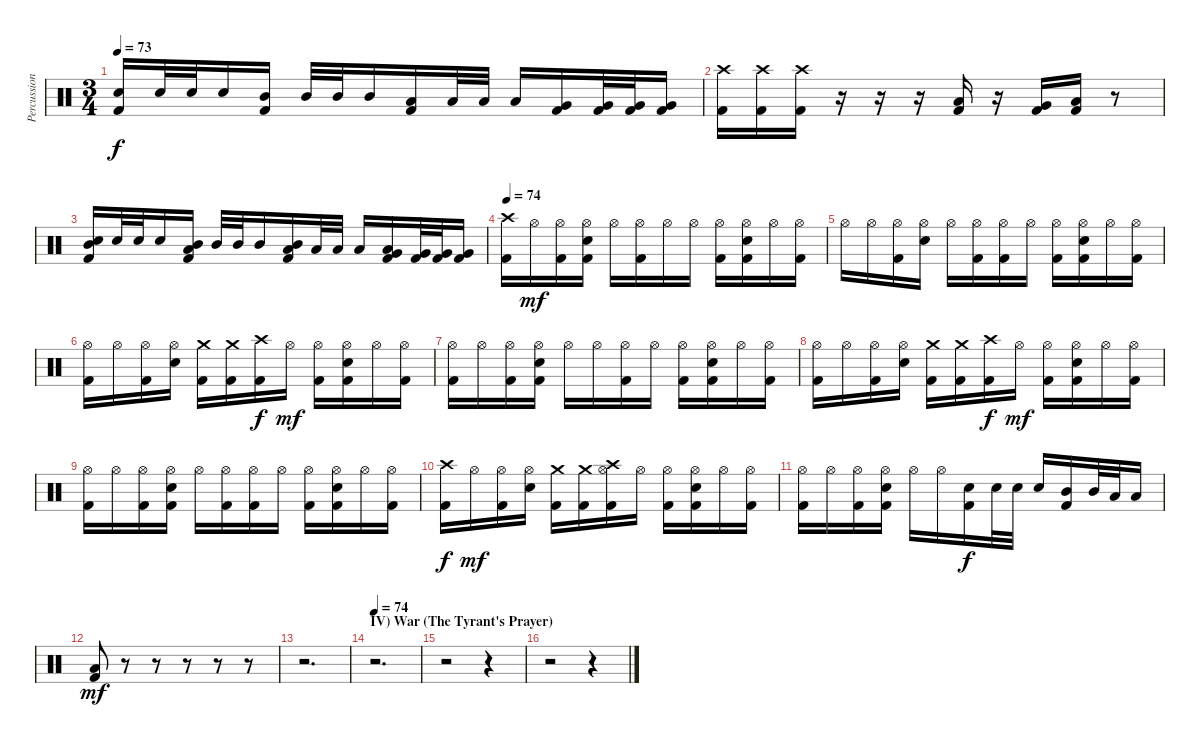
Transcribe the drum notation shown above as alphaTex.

\track ("Percussion" "Percussion") {instrument percussion}
\staff {score}
\articulation defaults
\ts (3 4)
\tempo 73
\clef neutral
\ks c
("Electric Snare (hit)" "Kick (hit) 2").16{dy f} "Electric Snare (hit)".32 "Electric Snare (hit)".32 "Electric Snare (hit)".16 ("Mid Tom (hit)" "Kick (hit) 2").16 "Mid Tom (hit)".32 "Mid Tom (hit)".32 "Mid Tom (hit)".16 ("Low Tom (hit)" "Kick (hit) 2").16 "Low Tom (hit)".32 "Low Tom (hit)".32 "Low Tom (hit)".16 ("Very Low Tom (hit)" "Kick (hit) 2").16 ("Very Low Tom (hit)" "Kick (hit) 2").32 ("Very Low Tom (hit)" "Kick (hit) 2").32 ("Very Low Tom (hit)" "Kick (hit) 2").16 |
("Crash high (hit)" "Kick (hit) 2").16 ("Crash high (hit)" "Kick (hit) 2").16 ("Crash high (hit)" "Kick (hit) 2").16 r.16 r.16 r.16 ("Low Tom (hit)" "Kick (hit) 2").16 r.16 ("Very Low Tom (hit)" "Kick (hit) 2").16 ("Low Floor Tom (hit)" "Kick (hit) 2").16 r.8 |
("Mid Tom (hit)" "Electric Snare (hit)" "Kick (hit) 2").16 "Electric Snare (hit)".32 "Electric Snare (hit)".32 "Electric Snare (hit)".16 ("Low Tom (hit)" "Mid Tom (hit)" "Kick (hit) 2").16 "Mid Tom (hit)".32 "Mid Tom (hit)".32 "Mid Tom (hit)".16 ("Mid Tom (hit)" "Low Tom (hit)" "Kick (hit) 2").16 "Low Tom (hit)".32 "Low Tom (hit)".32 "Low Tom (hit)".16 ("Low Tom (hit)" "Very Low Tom (hit)" "Kick (hit) 2").16 ("Very Low Tom (hit)" "Kick (hit) 2").32 ("Very Low Tom (hit)" "Kick (hit) 2").32 ("Very Low Tom (hit)" "Kick (hit) 2").16 |
\tempo 74
("Crash high (hit)" "Kick (hit) 2").16 "Hi-Hat (open)".16{dy mf} ("Hi-Hat (open)" "Kick (hit) 2").16 ("Hi-Hat (open)" "Electric Snare (hit)" "Kick (hit) 2").16 "Hi-Hat (open)".16 ("Hi-Hat (open)" "Kick (hit) 2").16 "Hi-Hat (open)".16 "Hi-Hat (open)".16 ("Hi-Hat (open)" "Kick (hit) 2").16 ("Hi-Hat (open)" "Electric Snare (hit)" "Kick (hit) 2").16 "Hi-Hat (open)".16 ("Hi-Hat (open)" "Kick (hit) 2").16 |
"Hi-Hat (open)".16 "Hi-Hat (open)".16 ("Hi-Hat (open)" "Kick (hit) 2").16 ("Hi-Hat (open)" "Electric Snare (hit)").16 "Hi-Hat (open)".16 ("Hi-Hat (open)" "Kick (hit) 2").16 ("Hi-Hat (open)" "Kick (hit) 2").16 "Hi-Hat (open)".16 ("Hi-Hat (open)" "Kick (hit) 2").16 ("Hi-Hat (open)" "Electric Snare (hit)" "Kick (hit) 2").16 "Hi-Hat (open)".16 ("Hi-Hat (open)" "Kick (hit) 2").16 |
("Hi-Hat (open)" "Kick (hit) 2").16 "Hi-Hat (open)".16 ("Hi-Hat (open)" "Kick (hit) 2").16 ("Hi-Hat (open)" "Electric Snare (hit)").16 ("Crash medium (hit)" "Kick (hit) 2").16 ("Crash medium (hit)" "Kick (hit) 2").16 ("Crash high (hit)" "Kick (hit) 2").16{dy f} "Hi-Hat (open)".16{dy mf} ("Hi-Hat (open)" "Kick (hit) 2").16 ("Hi-Hat (open)" "Electric Snare (hit)" "Kick (hit) 2").16 "Hi-Hat (open)".16 ("Hi-Hat (open)" "Kick (hit) 2").16 |
("Hi-Hat (open)" "Kick (hit) 2").16 "Hi-Hat (open)".16 ("Hi-Hat (open)" "Kick (hit) 2").16 ("Hi-Hat (open)" "Electric Snare (hit)" "Kick (hit) 2").16 "Hi-Hat (open)".16 "Hi-Hat (open)".16 ("Hi-Hat (open)" "Kick (hit) 2").16 "Hi-Hat (open)".16 ("Hi-Hat (open)" "Kick (hit) 2").16 ("Hi-Hat (open)" "Electric Snare (hit)" "Kick (hit) 2").16 "Hi-Hat (open)".16 ("Hi-Hat (open)" "Kick (hit) 2").16 |
("Hi-Hat (open)" "Kick (hit) 2").16 "Hi-Hat (open)".16 ("Hi-Hat (open)" "Kick (hit) 2").16 ("Hi-Hat (open)" "Electric Snare (hit)").16 ("Crash medium (hit)" "Kick (hit) 2").16 ("Crash medium (hit)" "Kick (hit) 2").16 ("Crash high (hit)" "Kick (hit) 2").16{dy f} "Hi-Hat (open)".16{dy mf} ("Hi-Hat (open)" "Kick (hit) 2").16 ("Hi-Hat (open)" "Electric Snare (hit)" "Kick (hit) 2").16 "Hi-Hat (open)".16 ("Hi-Hat (open)" "Kick (hit) 2").16 |
("Hi-Hat (open)" "Kick (hit) 2").16 "Hi-Hat (open)".16 ("Hi-Hat (open)" "Kick (hit) 2").16 ("Hi-Hat (open)" "Electric Snare (hit)" "Kick (hit) 2").16 "Hi-Hat (open)".16 ("Hi-Hat (open)" "Kick (hit) 2").16 ("Hi-Hat (open)" "Kick (hit) 2").16 "Hi-Hat (open)".16 ("Hi-Hat (open)" "Kick (hit) 2").16 ("Hi-Hat (open)" "Electric Snare (hit)" "Kick (hit) 2").16 "Hi-Hat (open)".16 ("Hi-Hat (open)" "Kick (hit) 2").16 |
("Crash high (hit)" "Kick (hit) 2").16{dy f} "Hi-Hat (open)".16{dy mf} ("Hi-Hat (open)" "Kick (hit) 2").16 ("Hi-Hat (open)" "Electric Snare (hit)").16 ("Crash medium (hit)" "Kick (hit) 2").16 ("Crash medium (hit)" "Kick (hit) 2").16 ("Crash high (hit)" "Hi-Hat (open)" "Kick (hit) 2").16 "Hi-Hat (open)".16 ("Hi-Hat (open)" "Kick (hit) 2").16 ("Hi-Hat (open)" "Electric Snare (hit)" "Kick (hit) 2").16 "Hi-Hat (open)".16 ("Hi-Hat (open)" "Kick (hit) 2").16 |
("Hi-Hat (open)" "Kick (hit) 2").16 "Hi-Hat (open)".16 ("Hi-Hat (open)" "Kick (hit) 2").16 ("Hi-Hat (open)" "Electric Snare (hit)" "Kick (hit) 2").16 "Hi-Hat (open)".16 "Hi-Hat (open)".16 ("Electric Snare (hit)" "Kick (hit) 2").16{dy f} "Electric Snare (hit)".32 "Electric Snare (hit)".32 "Electric Snare (hit)".16 ("Mid Tom (hit)" "Kick (hit) 2").16 "Mid Tom (hit)".32 "Low Tom (hit)".32 "Low Tom (hit)".16 |
("Low Tom (hit)" "Kick (hit) 2").8{dy mf} r.8 r.8 r.8 r.8 r.8 |
r.2{d} |
\section ("" "IV) War (The Tyrant's Prayer)")
\tempo 74
r.2{d} |
r.2 r.4 |
r.2 r.4
